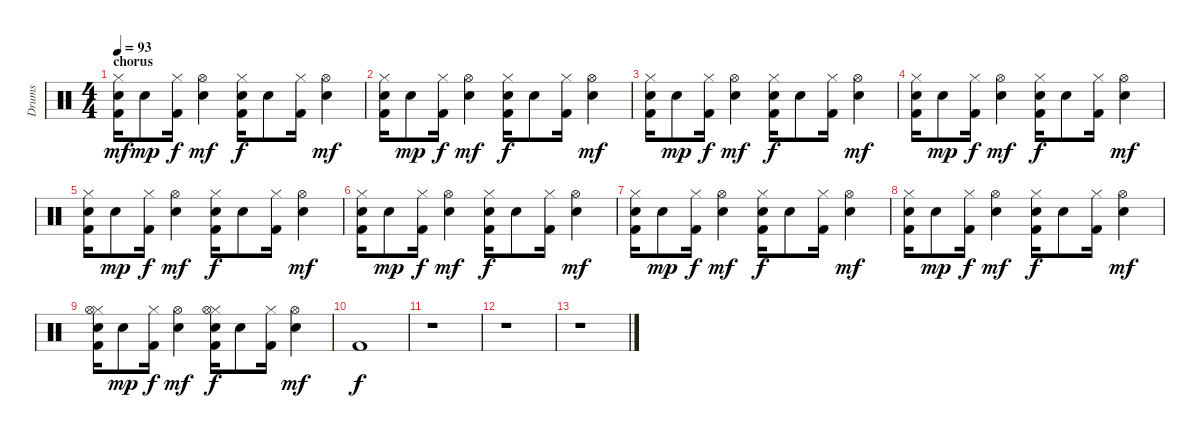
\track ("Drums" "Drums") {instrument percussion}
\staff {score}
\articulation defaults
\ts (4 4)
\section ("" "chorus")
\tempo 93
\clef neutral
\ks c
("Kick (hit) 2" "Snare (hit) 2" "Hi-Hat (closed)").16{dy mf} "Snare (hit) 2".8{dy mp} ("Kick (hit) 2" "Hi-Hat (closed)").16{dy f} ("Snare (hit) 2" "Hi-Hat (open)").4{dy mf} ("Kick (hit) 2" "Snare (hit) 2" "Hi-Hat (closed)").16{dy f} "Snare (hit) 2".8 ("Kick (hit) 2" "Hi-Hat (closed)").16 ("Snare (hit) 2" "Hi-Hat (open)").4{dy mf} |
("Kick (hit) 2" "Snare (hit) 2" "Hi-Hat (closed)").16 "Snare (hit) 2".8{dy mp} ("Kick (hit) 2" "Hi-Hat (closed)").16{dy f} ("Snare (hit) 2" "Hi-Hat (open)").4{dy mf} ("Kick (hit) 2" "Snare (hit) 2" "Hi-Hat (closed)").16{dy f} "Snare (hit) 2".8 ("Kick (hit) 2" "Hi-Hat (closed)").16 ("Snare (hit) 2" "Hi-Hat (open)").4{dy mf} |
("Kick (hit) 2" "Snare (hit) 2" "Hi-Hat (closed)").16 "Snare (hit) 2".8{dy mp} ("Kick (hit) 2" "Hi-Hat (closed)").16{dy f} ("Snare (hit) 2" "Hi-Hat (open)").4{dy mf} ("Kick (hit) 2" "Snare (hit) 2" "Hi-Hat (closed)").16{dy f} "Snare (hit) 2".8 ("Kick (hit) 2" "Hi-Hat (closed)").16 ("Snare (hit) 2" "Hi-Hat (open)").4{dy mf} |
("Kick (hit) 2" "Snare (hit) 2" "Hi-Hat (closed)").16 "Snare (hit) 2".8{dy mp} ("Kick (hit) 2" "Hi-Hat (closed)").16{dy f} ("Snare (hit) 2" "Hi-Hat (open)").4{dy mf} ("Kick (hit) 2" "Snare (hit) 2" "Hi-Hat (closed)").16{dy f} "Snare (hit) 2".8 ("Kick (hit) 2" "Hi-Hat (closed)").16 ("Snare (hit) 2" "Hi-Hat (open)").4{dy mf} |
("Kick (hit) 2" "Snare (hit) 2" "Hi-Hat (closed)").16 "Snare (hit) 2".8{dy mp} ("Kick (hit) 2" "Hi-Hat (closed)").16{dy f} ("Snare (hit) 2" "Hi-Hat (open)").4{dy mf} ("Kick (hit) 2" "Snare (hit) 2" "Hi-Hat (closed)").16{dy f} "Snare (hit) 2".8 ("Kick (hit) 2" "Hi-Hat (closed)").16 ("Snare (hit) 2" "Hi-Hat (open)").4{dy mf} |
("Kick (hit) 2" "Snare (hit) 2" "Hi-Hat (closed)").16 "Snare (hit) 2".8{dy mp} ("Kick (hit) 2" "Hi-Hat (closed)").16{dy f} ("Snare (hit) 2" "Hi-Hat (open)").4{dy mf} ("Kick (hit) 2" "Snare (hit) 2" "Hi-Hat (closed)").16{dy f} "Snare (hit) 2".8 ("Kick (hit) 2" "Hi-Hat (closed)").16 ("Snare (hit) 2" "Hi-Hat (open)").4{dy mf} |
("Kick (hit) 2" "Snare (hit) 2" "Hi-Hat (closed)").16 "Snare (hit) 2".8{dy mp} ("Kick (hit) 2" "Hi-Hat (closed)").16{dy f} ("Snare (hit) 2" "Hi-Hat (open)").4{dy mf} ("Kick (hit) 2" "Snare (hit) 2" "Hi-Hat (closed)").16{dy f} "Snare (hit) 2".8 ("Kick (hit) 2" "Hi-Hat (closed)").16 ("Snare (hit) 2" "Hi-Hat (open)").4{dy mf} |
("Kick (hit) 2" "Snare (hit) 2" "Hi-Hat (closed)").16 "Snare (hit) 2".8{dy mp} ("Kick (hit) 2" "Hi-Hat (closed)").16{dy f} ("Snare (hit) 2" "Hi-Hat (open)").4{dy mf} ("Kick (hit) 2" "Snare (hit) 2" "Hi-Hat (closed)").16{dy f} "Snare (hit) 2".8 ("Kick (hit) 2" "Hi-Hat (closed)").16 ("Snare (hit) 2" "Hi-Hat (open)").4{dy mf} |
("Kick (hit) 2" "Snare (hit) 2" "Hi-Hat (closed)" "Hi-Hat (open)").16 "Snare (hit) 2".8{dy mp} ("Kick (hit) 2" "Hi-Hat (closed)").16{dy f} ("Snare (hit) 2" "Hi-Hat (open)").4{dy mf} ("Kick (hit) 2" "Snare (hit) 2" "Hi-Hat (closed)" "Hi-Hat (open)").16{dy f} "Snare (hit) 2".8 ("Kick (hit) 2" "Hi-Hat (closed)").16 ("Snare (hit) 2" "Hi-Hat (open)").4{dy mf} |
"Kick (hit) 2".1{dy f} |
r.1 |
r.1 |
r.1
